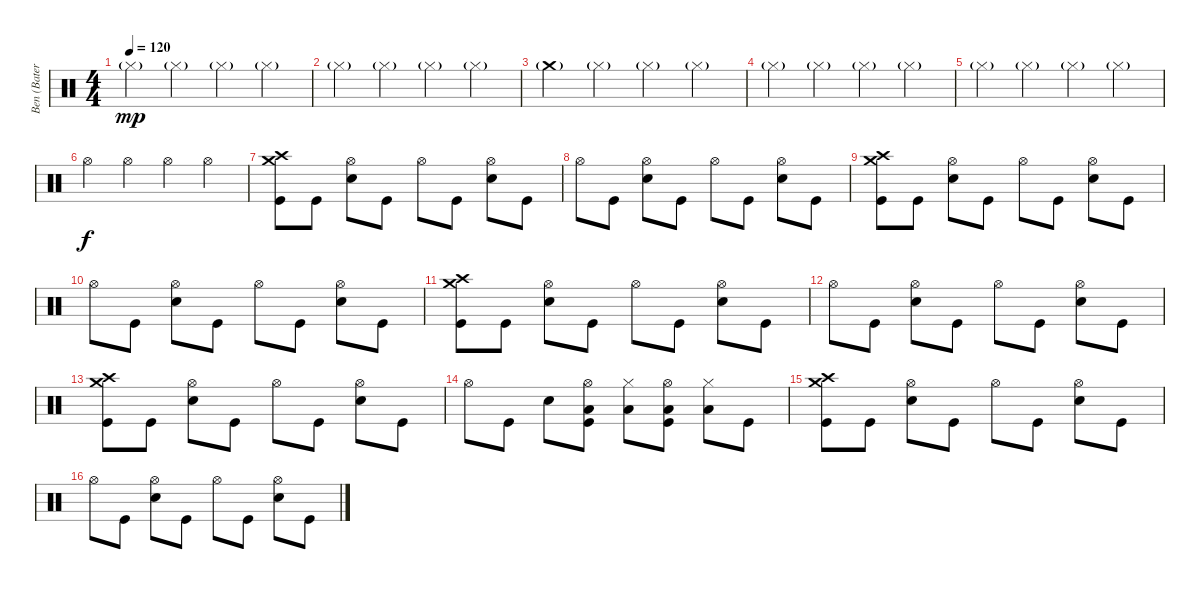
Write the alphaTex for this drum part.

\track ("Ben (Bateria)" "Ben (Bater") {instrument percussion}
\staff {score}
\articulation defaults
\ts (4 4)
\tempo 120
\clef neutral
\ks c "Hi-Hat (closed)"{g}.4{dy mp} "Hi-Hat (closed)"{g}.4 "Hi-Hat (closed)"{g}.4 "Hi-Hat (closed)"{g}.4
|
"Hi-Hat (closed)"{g}.4 "Hi-Hat (closed)"{g}.4 "Hi-Hat (closed)"{g}.4 "Hi-Hat (closed)"{g}.4 |
"Crash medium (hit)"{g}.4 "Hi-Hat (closed)"{g}.4 "Hi-Hat (closed)"{g}.4 "Hi-Hat (closed)"{g}.4 |
"Hi-Hat (closed)"{g}.4 "Hi-Hat (closed)"{g}.4 "Hi-Hat (closed)"{g}.4 "Hi-Hat (closed)"{g}.4 |
"Hi-Hat (closed)"{g}.4 "Hi-Hat (closed)"{g}.4 "Hi-Hat (closed)"{g}.4 "Hi-Hat (closed)"{g}.4 |
"Hi-Hat (open)".4{dy f} "Hi-Hat (open)".4 "Hi-Hat (open)".4 "Hi-Hat (open)".4 |
("Kick (hit)" "Crash high (hit)" "Crash medium (hit)").8 "Kick (hit)".8 ("Snare (hit) 2" "Hi-Hat (open)").8 "Kick (hit)".8 "Hi-Hat (open)".8 "Kick (hit)".8 ("Snare (hit) 2" "Hi-Hat (open)").8 "Kick (hit)".8 |
"Hi-Hat (open)".8 "Kick (hit)".8 ("Snare (hit) 2" "Hi-Hat (open)").8 "Kick (hit)".8 "Hi-Hat (open)".8 "Kick (hit)".8 ("Snare (hit) 2" "Hi-Hat (open)").8 "Kick (hit)".8 |
("Kick (hit)" "Crash high (hit)" "Crash medium (hit)").8 "Kick (hit)".8 ("Snare (hit) 2" "Hi-Hat (open)").8 "Kick (hit)".8 "Hi-Hat (open)".8 "Kick (hit)".8 ("Snare (hit) 2" "Hi-Hat (open)").8 "Kick (hit)".8 |
"Hi-Hat (open)".8 "Kick (hit)".8 ("Snare (hit) 2" "Hi-Hat (open)").8 "Kick (hit)".8 "Hi-Hat (open)".8 "Kick (hit)".8 ("Snare (hit) 2" "Hi-Hat (open)").8 "Kick (hit)".8 |
("Kick (hit)" "Crash high (hit)" "Crash medium (hit)").8 "Kick (hit)".8 ("Snare (hit) 2" "Hi-Hat (open)").8 "Kick (hit)".8 "Hi-Hat (open)".8 "Kick (hit)".8 ("Snare (hit) 2" "Hi-Hat (open)").8 "Kick (hit)".8 |
"Hi-Hat (open)".8 "Kick (hit)".8 ("Snare (hit) 2" "Hi-Hat (open)").8 "Kick (hit)".8 "Hi-Hat (open)".8 "Kick (hit)".8 ("Snare (hit) 2" "Hi-Hat (open)").8 "Kick (hit)".8 |
("Kick (hit)" "Crash high (hit)" "Crash medium (hit)").8 "Kick (hit)".8 ("Snare (hit) 2" "Hi-Hat (open)").8 "Kick (hit)".8 "Hi-Hat (open)".8 "Kick (hit)".8 ("Snare (hit) 2" "Hi-Hat (open)").8 "Kick (hit)".8 |
"Hi-Hat (open)".8 "Kick (hit)".8 "Snare (hit) 2".8 ("Kick (hit)" "Low Tom (hit)" "Hi-Hat (open)").8 ("Low Floor Tom (hit)" "Hi-Hat (closed)").8 ("Kick (hit)" "Low Tom (hit)" "Hi-Hat (open)").8 ("Low Floor Tom (hit)" "Hi-Hat (closed)").8 "Kick (hit)".8 |
("Kick (hit)" "Crash high (hit)" "Crash medium (hit)").8 "Kick (hit)".8 ("Snare (hit) 2" "Hi-Hat (open)").8 "Kick (hit)".8 "Hi-Hat (open)".8 "Kick (hit)".8 ("Snare (hit) 2" "Hi-Hat (open)").8 "Kick (hit)".8 |
"Hi-Hat (open)".8 "Kick (hit)".8 ("Snare (hit) 2" "Hi-Hat (open)").8 "Kick (hit)".8 "Hi-Hat (open)".8 "Kick (hit)".8 ("Snare (hit) 2" "Hi-Hat (open)").8 "Kick (hit)".8
